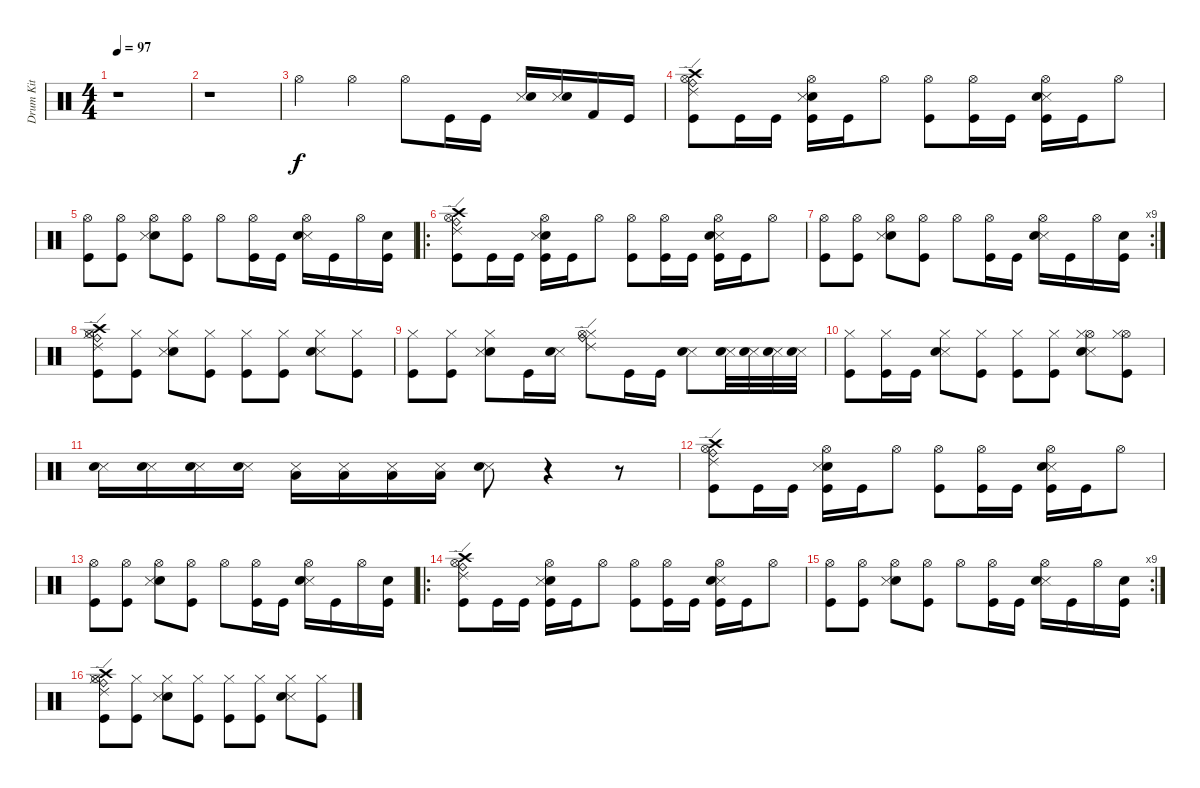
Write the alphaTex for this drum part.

\track ("Drum Kit" "Drum Kit") {instrument percussion}
\staff {score}
\articulation defaults
\ts (4 4)
\tempo 97
\clef neutral
\ks c
r.1{dy f} |
r.1 |
"Hi-Hat (open)".4 "Hi-Hat (open)".4 "Hi-Hat (open)".8 "Kick (hit)".16 "Kick (hit)".16 ("Snare (side stick) 3" "Electric Snare (hit)").16 ("Snare (side stick) 3" "Electric Snare (hit)").16 "Kick (hit) 2".16 "Kick (hit)".16 |
("Crash high (hit)" "Ride (edge) 2" "Kick (hit)" "Hi-Hat (open)" "Ride (bell)").8 "Kick (hit)".16 "Kick (hit)".16 ("Electric Snare (hit)" "Snare (side stick) 3" "Kick (hit)" "Hi-Hat (open)").16 "Kick (hit)".16 "Hi-Hat (open)".8 ("Kick (hit)" "Hi-Hat (open)").8 ("Kick (hit)" "Hi-Hat (open)").16 "Kick (hit)".16 ("Snare (side stick) 3" "Electric Snare (hit)" "Kick (hit)" "Hi-Hat (open)").16 "Kick (hit)".16 "Hi-Hat (open)".8 |
("Kick (hit)" "Hi-Hat (open)").8 ("Kick (hit)" "Hi-Hat (open)").8 ("Electric Snare (hit)" "Snare (side stick) 3" "Hi-Hat (open)").8 ("Kick (hit)" "Hi-Hat (open)").8 "Hi-Hat (open)".8 ("Kick (hit)" "Hi-Hat (open)").16 "Kick (hit)".16 ("Snare (side stick) 3" "Electric Snare (hit)" "Hi-Hat (open)").16 "Kick (hit)".16 "Hi-Hat (open)".16 ("Kick (hit)" "Electric Snare (hit)").16 |
\ro
("Crash high (hit)" "Ride (edge) 2" "Kick (hit)" "Hi-Hat (open)" "Ride (bell)").8 "Kick (hit)".16 "Kick (hit)".16 ("Electric Snare (hit)" "Snare (side stick) 3" "Kick (hit)" "Hi-Hat (open)").16 "Kick (hit)".16 "Hi-Hat (open)".8 ("Kick (hit)" "Hi-Hat (open)").8 ("Kick (hit)" "Hi-Hat (open)").16 "Kick (hit)".16 ("Snare (side stick) 3" "Electric Snare (hit)" "Kick (hit)" "Hi-Hat (open)").16 "Kick (hit)".16 "Hi-Hat (open)".8 |
\rc 9
("Kick (hit)" "Hi-Hat (open)").8 ("Kick (hit)" "Hi-Hat (open)").8 ("Electric Snare (hit)" "Snare (side stick) 3" "Hi-Hat (open)").8 ("Kick (hit)" "Hi-Hat (open)").8 "Hi-Hat (open)".8 ("Kick (hit)" "Hi-Hat (open)").16 "Kick (hit)".16 ("Snare (side stick) 3" "Electric Snare (hit)" "Hi-Hat (open)").16 "Kick (hit)".16 "Hi-Hat (open)".16 ("Kick (hit)" "Electric Snare (hit)").16 |
("Kick (hit)" "Hi-Hat (closed)" "Hi-Hat (open)" "Crash high (hit)" "Ride (bell)" "Ride (edge) 2").8 ("Hi-Hat (closed)" "Kick (hit)").8 ("Hi-Hat (closed)" "Electric Snare (hit)" "Snare (side stick) 3").8 ("Hi-Hat (closed)" "Kick (hit)").8 ("Hi-Hat (closed)" "Kick (hit)").8 ("Kick (hit)" "Hi-Hat (closed)").8 ("Hi-Hat (closed)" "Snare (side stick) 3" "Electric Snare (hit)").8 ("Hi-Hat (closed)" "Kick (hit)").8 |
("Hi-Hat (closed)" "Kick (hit)").8 ("Hi-Hat (closed)" "Kick (hit)").8 ("Hi-Hat (closed)" "Electric Snare (hit)" "Snare (side stick) 3").8 "Kick (hit)".16 ("Snare (side stick) 3" "Electric Snare (hit)").16 ("Hi-Hat (closed)" "Hi-Hat (open)" "Ride (bell)" "Ride (edge) 2").8 "Kick (hit)".16 "Kick (hit)".16 ("Snare (side stick) 3" "Electric Snare (hit)").8 ("Snare (side stick) 3" "Electric Snare (hit)").32 ("Snare (side stick) 3" "Electric Snare (hit)").32 ("Snare (side stick) 3" "Electric Snare (hit)").32 ("Snare (side stick) 3" "Electric Snare (hit)").32 |
("Kick (hit)" "Hi-Hat (closed)").8 ("Kick (hit)" "Hi-Hat (closed)").16 "Kick (hit)".16 ("Snare (side stick) 3" "Electric Snare (hit)" "Hi-Hat (closed)").8 ("Kick (hit)" "Hi-Hat (closed)").8 ("Kick (hit)" "Hi-Hat (closed)").8 ("Kick (hit)" "Hi-Hat (closed)").8 ("Hi-Hat (open)" "Snare (side stick) 3" "Electric Snare (hit)" "Hi-Hat (closed)").8 ("Kick (hit)" "Hi-Hat (open)" "Hi-Hat (closed)").8 |
("Snare (side stick) 3" "Electric Snare (hit)").16 ("Snare (side stick) 3" "Electric Snare (hit)").16 ("Snare (side stick) 3" "Electric Snare (hit)").16 ("Snare (side stick) 3" "Electric Snare (hit)").16 ("Snare (side stick) 3" "Low Floor Tom (hit)").16 ("Snare (side stick) 3" "Low Floor Tom (hit)").16 ("Snare (side stick) 3" "Low Floor Tom (hit)").16 ("Snare (side stick) 3" "Low Floor Tom (hit)").16 ("Snare (side stick) 3" "Electric Snare (hit)").8 r.4 r.8 |
("Crash high (hit)" "Ride (edge) 2" "Kick (hit)" "Hi-Hat (open)" "Ride (bell)").8 "Kick (hit)".16 "Kick (hit)".16 ("Electric Snare (hit)" "Snare (side stick) 3" "Kick (hit)" "Hi-Hat (open)").16 "Kick (hit)".16 "Hi-Hat (open)".8 ("Kick (hit)" "Hi-Hat (open)").8 ("Kick (hit)" "Hi-Hat (open)").16 "Kick (hit)".16 ("Snare (side stick) 3" "Electric Snare (hit)" "Kick (hit)" "Hi-Hat (open)").16 "Kick (hit)".16 "Hi-Hat (open)".8 |
("Kick (hit)" "Hi-Hat (open)").8 ("Kick (hit)" "Hi-Hat (open)").8 ("Electric Snare (hit)" "Snare (side stick) 3" "Hi-Hat (open)").8 ("Kick (hit)" "Hi-Hat (open)").8 "Hi-Hat (open)".8 ("Kick (hit)" "Hi-Hat (open)").16 "Kick (hit)".16 ("Snare (side stick) 3" "Electric Snare (hit)" "Hi-Hat (open)").16 "Kick (hit)".16 "Hi-Hat (open)".16 ("Kick (hit)" "Electric Snare (hit)").16 |
\ro
("Crash high (hit)" "Ride (edge) 2" "Kick (hit)" "Hi-Hat (open)" "Ride (bell)").8 "Kick (hit)".16 "Kick (hit)".16 ("Electric Snare (hit)" "Snare (side stick) 3" "Kick (hit)" "Hi-Hat (open)").16 "Kick (hit)".16 "Hi-Hat (open)".8 ("Kick (hit)" "Hi-Hat (open)").8 ("Kick (hit)" "Hi-Hat (open)").16 "Kick (hit)".16 ("Snare (side stick) 3" "Electric Snare (hit)" "Kick (hit)" "Hi-Hat (open)").16 "Kick (hit)".16 "Hi-Hat (open)".8 |
\rc 9
("Kick (hit)" "Hi-Hat (open)").8 ("Kick (hit)" "Hi-Hat (open)").8 ("Electric Snare (hit)" "Snare (side stick) 3" "Hi-Hat (open)").8 ("Kick (hit)" "Hi-Hat (open)").8 "Hi-Hat (open)".8 ("Kick (hit)" "Hi-Hat (open)").16 "Kick (hit)".16 ("Snare (side stick) 3" "Electric Snare (hit)" "Hi-Hat (open)").16 "Kick (hit)".16 "Hi-Hat (open)".16 ("Kick (hit)" "Electric Snare (hit)").16 |
("Kick (hit)" "Hi-Hat (closed)" "Hi-Hat (open)" "Crash high (hit)" "Ride (bell)" "Ride (edge) 2").8 ("Hi-Hat (closed)" "Kick (hit)").8 ("Hi-Hat (closed)" "Electric Snare (hit)" "Snare (side stick) 3").8 ("Hi-Hat (closed)" "Kick (hit)").8 ("Hi-Hat (closed)" "Kick (hit)").8 ("Kick (hit)" "Hi-Hat (closed)").8 ("Hi-Hat (closed)" "Snare (side stick) 3" "Electric Snare (hit)").8 ("Hi-Hat (closed)" "Kick (hit)").8
